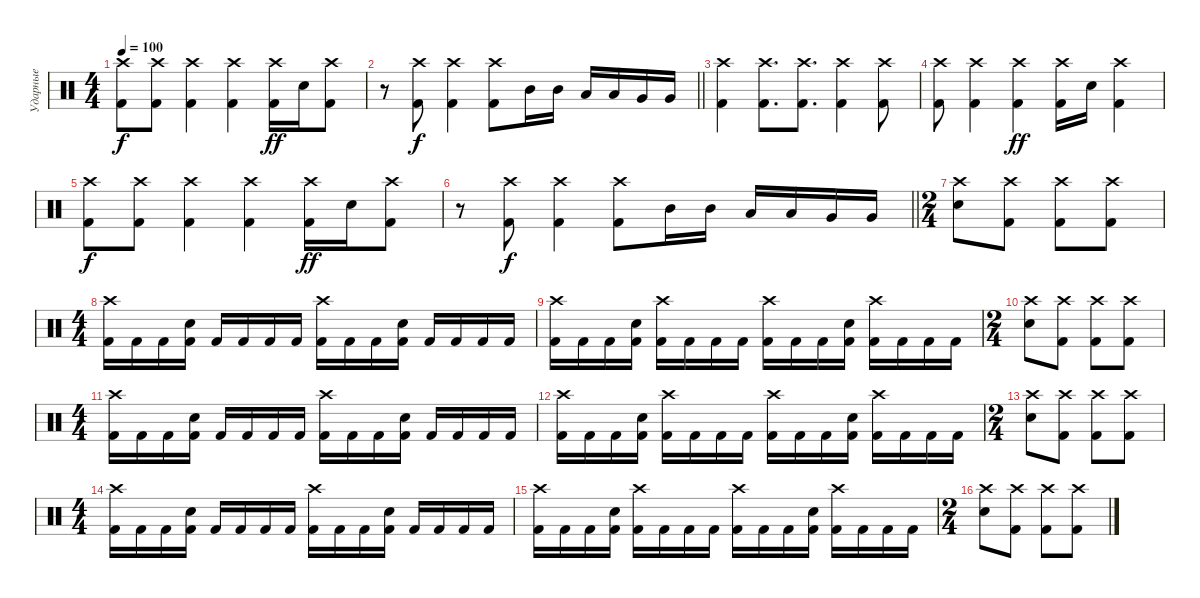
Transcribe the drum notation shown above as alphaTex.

\track ("Ударные" "Ударные") {instrument percussion}
\staff {score}
\articulation defaults
\ts (4 4)
\tempo 100
\clef neutral
\ks c
("Crash high (hit)" "Kick (hit) 2").8{dy f} ("Crash high (hit)" "Kick (hit) 2").8 ("Crash high (hit)" "Kick (hit) 2").4 ("Crash high (hit)" "Kick (hit) 2").4 ("Crash high (hit)" "Kick (hit) 2").16{dy ff} "Snare (hit) 2".16 ("Crash high (hit)" "Kick (hit) 2").8 |
\barLineRight lightlight
r.8 ("Crash high (hit)" "Kick (hit) 2").8{dy f} ("Crash high (hit)" "Kick (hit) 2").4 ("Crash high (hit)" "Kick (hit) 2").8 "Mid Tom (hit)".16 "Mid Tom (hit)".16 "Low Tom (hit)".16 "Low Tom (hit)".16 "Very Low Tom (hit)".16 "Very Low Tom (hit)".16 |
("Crash high (hit)" "Kick (hit) 2").4 ("Crash high (hit)" "Kick (hit) 2").8{d} ("Crash high (hit)" "Kick (hit) 2").8{d} ("Crash high (hit)" "Kick (hit) 2").4 ("Crash high (hit)" "Kick (hit) 2").8 |
("Crash high (hit)" "Kick (hit) 2").8 ("Crash high (hit)" "Kick (hit) 2").4 ("Crash high (hit)" "Kick (hit) 2").4{dy ff} ("Crash high (hit)" "Kick (hit) 2").16 "Snare (hit) 2".16 ("Crash high (hit)" "Kick (hit) 2").4 |
("Crash high (hit)" "Kick (hit) 2").8{dy f} ("Crash high (hit)" "Kick (hit) 2").8 ("Crash high (hit)" "Kick (hit) 2").4 ("Crash high (hit)" "Kick (hit) 2").4 ("Crash high (hit)" "Kick (hit) 2").16{dy ff} "Snare (hit) 2".16 ("Crash high (hit)" "Kick (hit) 2").8 |
\barLineRight lightlight
r.8 ("Crash high (hit)" "Kick (hit) 2").8{dy f} ("Crash high (hit)" "Kick (hit) 2").4 ("Crash high (hit)" "Kick (hit) 2").8 "Mid Tom (hit)".16 "Mid Tom (hit)".16 "Low Tom (hit)".16 "Low Tom (hit)".16 "Very Low Tom (hit)".16 "Very Low Tom (hit)".16 |
\ts (2 4)
("Crash high (hit)" "Snare (hit) 2").8 ("Crash high (hit)" "Kick (hit) 2").8 ("Crash high (hit)" "Kick (hit) 2").8 ("Crash high (hit)" "Kick (hit) 2").8 |
\ts (4 4)
("Crash high (hit)" "Kick (hit) 2").16 "Kick (hit) 2".16 "Kick (hit) 2".16 ("Snare (hit) 2" "Kick (hit) 2").16 "Kick (hit) 2".16 "Kick (hit) 2".16 "Kick (hit) 2".16 "Kick (hit) 2".16 ("Crash high (hit)" "Kick (hit) 2").16 "Kick (hit) 2".16 "Kick (hit) 2".16 ("Snare (hit) 2" "Kick (hit) 2").16 "Kick (hit) 2".16 "Kick (hit) 2".16 "Kick (hit) 2".16 "Kick (hit) 2".16 |
("Crash high (hit)" "Kick (hit) 2").16 "Kick (hit) 2".16 "Kick (hit) 2".16 ("Snare (hit) 2" "Kick (hit) 2").16 ("Crash high (hit)" "Kick (hit) 2").16 "Kick (hit) 2".16 "Kick (hit) 2".16 "Kick (hit) 2".16 ("Crash high (hit)" "Kick (hit) 2").16 "Kick (hit) 2".16 "Kick (hit) 2".16 ("Snare (hit) 2" "Kick (hit) 2").16 ("Crash high (hit)" "Kick (hit) 2").16 "Kick (hit) 2".16 "Kick (hit) 2".16 "Kick (hit) 2".16 |
\ts (2 4)
("Crash high (hit)" "Snare (hit) 2").8 ("Crash high (hit)" "Kick (hit) 2").8 ("Crash high (hit)" "Kick (hit) 2").8 ("Crash high (hit)" "Kick (hit) 2").8 |
\ts (4 4)
("Crash high (hit)" "Kick (hit) 2").16 "Kick (hit) 2".16 "Kick (hit) 2".16 ("Snare (hit) 2" "Kick (hit) 2").16 "Kick (hit) 2".16 "Kick (hit) 2".16 "Kick (hit) 2".16 "Kick (hit) 2".16 ("Crash high (hit)" "Kick (hit) 2").16 "Kick (hit) 2".16 "Kick (hit) 2".16 ("Snare (hit) 2" "Kick (hit) 2").16 "Kick (hit) 2".16 "Kick (hit) 2".16 "Kick (hit) 2".16 "Kick (hit) 2".16 |
("Crash high (hit)" "Kick (hit) 2").16 "Kick (hit) 2".16 "Kick (hit) 2".16 ("Snare (hit) 2" "Kick (hit) 2").16 ("Crash high (hit)" "Kick (hit) 2").16 "Kick (hit) 2".16 "Kick (hit) 2".16 "Kick (hit) 2".16 ("Crash high (hit)" "Kick (hit) 2").16 "Kick (hit) 2".16 "Kick (hit) 2".16 ("Snare (hit) 2" "Kick (hit) 2").16 ("Crash high (hit)" "Kick (hit) 2").16 "Kick (hit) 2".16 "Kick (hit) 2".16 "Kick (hit) 2".16 |
\ts (2 4)
("Crash high (hit)" "Snare (hit) 2").8 ("Crash high (hit)" "Kick (hit) 2").8 ("Crash high (hit)" "Kick (hit) 2").8 ("Crash high (hit)" "Kick (hit) 2").8 |
\ts (4 4)
("Crash high (hit)" "Kick (hit) 2").16 "Kick (hit) 2".16 "Kick (hit) 2".16 ("Snare (hit) 2" "Kick (hit) 2").16 "Kick (hit) 2".16 "Kick (hit) 2".16 "Kick (hit) 2".16 "Kick (hit) 2".16 ("Crash high (hit)" "Kick (hit) 2").16 "Kick (hit) 2".16 "Kick (hit) 2".16 ("Snare (hit) 2" "Kick (hit) 2").16 "Kick (hit) 2".16 "Kick (hit) 2".16 "Kick (hit) 2".16 "Kick (hit) 2".16 |
("Crash high (hit)" "Kick (hit) 2").16 "Kick (hit) 2".16 "Kick (hit) 2".16 ("Snare (hit) 2" "Kick (hit) 2").16 ("Crash high (hit)" "Kick (hit) 2").16 "Kick (hit) 2".16 "Kick (hit) 2".16 "Kick (hit) 2".16 ("Crash high (hit)" "Kick (hit) 2").16 "Kick (hit) 2".16 "Kick (hit) 2".16 ("Snare (hit) 2" "Kick (hit) 2").16 ("Crash high (hit)" "Kick (hit) 2").16 "Kick (hit) 2".16 "Kick (hit) 2".16 "Kick (hit) 2".16 |
\ts (2 4)
("Crash high (hit)" "Snare (hit) 2").8 ("Crash high (hit)" "Kick (hit) 2").8 ("Crash high (hit)" "Kick (hit) 2").8 ("Crash high (hit)" "Kick (hit) 2").8
